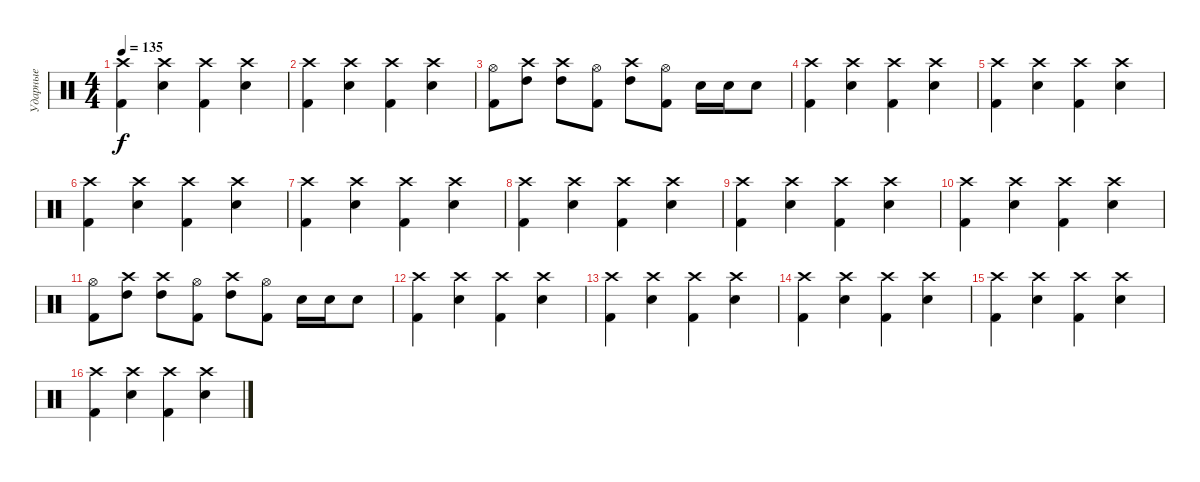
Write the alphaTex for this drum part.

\track ("Ударные" "Ударные") {instrument percussion}
\staff {score}
\articulation defaults
\ts (4 4)
\tempo 135
\clef neutral
\ks c
("Crash high (hit)" "Kick (hit) 2").4{dy f} ("Crash high (hit)" "Snare (hit) 2").4 ("Crash high (hit)" "Kick (hit) 2").4 ("Crash high (hit)" "Snare (hit) 2").4 |
("Crash high (hit)" "Kick (hit) 2").4 ("Crash high (hit)" "Snare (hit) 2").4 ("Crash high (hit)" "Kick (hit) 2").4 ("Crash high (hit)" "Snare (hit) 2").4 |
("Hi-Hat (open)" "Kick (hit) 2").8 ("Crash high (hit)" "High Tom (hit)").8 ("Crash high (hit)" "High Tom (hit)").8 ("Hi-Hat (open)" "Kick (hit) 2").8 ("Crash high (hit)" "High Tom (hit)").8 ("Hi-Hat (open)" "Kick (hit) 2").8 "Snare (hit) 2".16 "Snare (hit) 2".16 "Snare (hit) 2".8 |
("Crash high (hit)" "Kick (hit) 2").4 ("Crash high (hit)" "Snare (hit) 2").4 ("Crash high (hit)" "Kick (hit) 2").4 ("Crash high (hit)" "Snare (hit) 2").4 |
("Crash high (hit)" "Kick (hit) 2").4 ("Crash high (hit)" "Snare (hit) 2").4 ("Crash high (hit)" "Kick (hit) 2").4 ("Crash high (hit)" "Snare (hit) 2").4 |
("Crash high (hit)" "Kick (hit) 2").4 ("Crash high (hit)" "Snare (hit) 2").4 ("Crash high (hit)" "Kick (hit) 2").4 ("Crash high (hit)" "Snare (hit) 2").4 |
("Crash high (hit)" "Kick (hit) 2").4 ("Crash high (hit)" "Snare (hit) 2").4 ("Crash high (hit)" "Kick (hit) 2").4 ("Crash high (hit)" "Snare (hit) 2").4 |
("Crash high (hit)" "Kick (hit) 2").4 ("Crash high (hit)" "Snare (hit) 2").4 ("Crash high (hit)" "Kick (hit) 2").4 ("Crash high (hit)" "Snare (hit) 2").4 |
("Crash high (hit)" "Kick (hit) 2").4 ("Crash high (hit)" "Snare (hit) 2").4 ("Crash high (hit)" "Kick (hit) 2").4 ("Crash high (hit)" "Snare (hit) 2").4 |
("Crash high (hit)" "Kick (hit) 2").4 ("Crash high (hit)" "Snare (hit) 2").4 ("Crash high (hit)" "Kick (hit) 2").4 ("Crash high (hit)" "Snare (hit) 2").4 |
("Hi-Hat (open)" "Kick (hit) 2").8 ("Crash high (hit)" "High Tom (hit)").8 ("Crash high (hit)" "High Tom (hit)").8 ("Hi-Hat (open)" "Kick (hit) 2").8 ("Crash high (hit)" "High Tom (hit)").8 ("Hi-Hat (open)" "Kick (hit) 2").8 "Snare (hit) 2".16 "Snare (hit) 2".16 "Snare (hit) 2".8 |
("Crash high (hit)" "Kick (hit) 2").4 ("Crash high (hit)" "Snare (hit) 2").4 ("Crash high (hit)" "Kick (hit) 2").4 ("Crash high (hit)" "Snare (hit) 2").4 |
("Crash high (hit)" "Kick (hit) 2").4 ("Crash high (hit)" "Snare (hit) 2").4 ("Crash high (hit)" "Kick (hit) 2").4 ("Crash high (hit)" "Snare (hit) 2").4 |
("Crash high (hit)" "Kick (hit) 2").4 ("Crash high (hit)" "Snare (hit) 2").4 ("Crash high (hit)" "Kick (hit) 2").4 ("Crash high (hit)" "Snare (hit) 2").4 |
("Crash high (hit)" "Kick (hit) 2").4 ("Crash high (hit)" "Snare (hit) 2").4 ("Crash high (hit)" "Kick (hit) 2").4 ("Crash high (hit)" "Snare (hit) 2").4 |
("Crash high (hit)" "Kick (hit) 2").4 ("Crash high (hit)" "Snare (hit) 2").4 ("Crash high (hit)" "Kick (hit) 2").4 ("Crash high (hit)" "Snare (hit) 2").4
